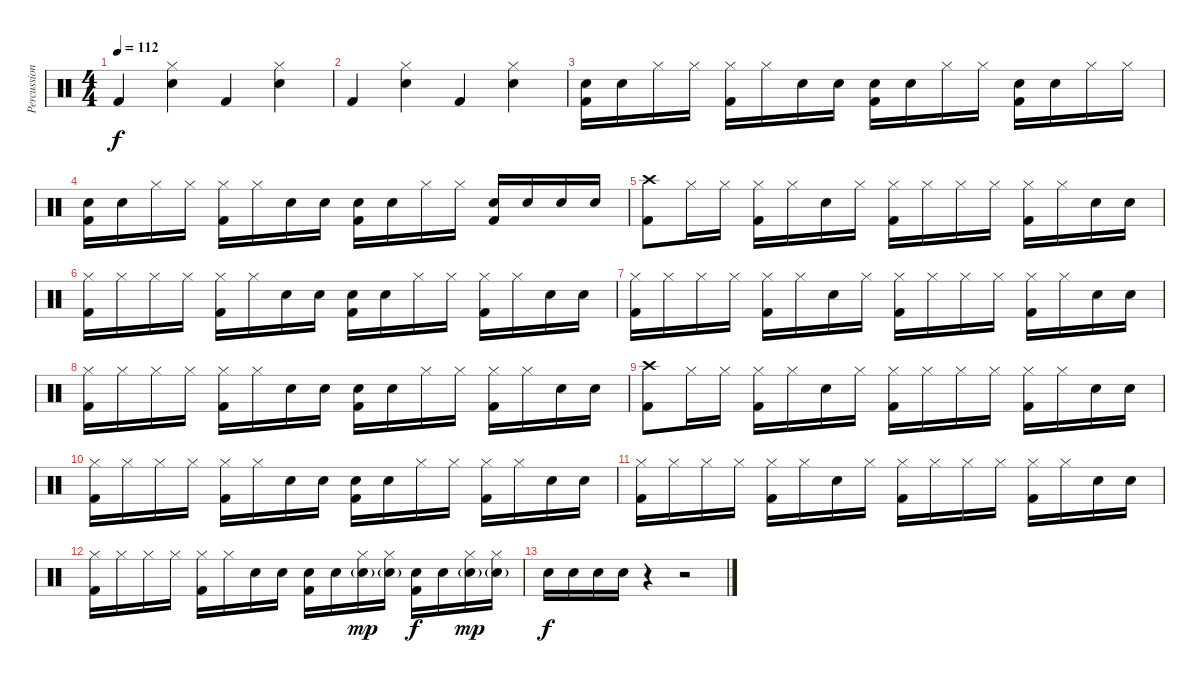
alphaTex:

\track ("Percussion" "Percussion") {instrument percussion}
\staff {score}
\articulation defaults
\ts (4 4)
\tempo 112
\clef neutral
\ks c "Kick (hit) 2".4{dy f}
("Hi-Hat (closed)" "Snare (hit) 2").4 "Kick (hit) 2".4 ("Hi-Hat (closed)" "Snare (hit) 2").4 |
"Kick (hit) 2".4 ("Hi-Hat (closed)" "Snare (hit) 2").4 "Kick (hit) 2".4 ("Hi-Hat (closed)" "Snare (hit) 2").4 |
("Snare (hit) 2" "Kick (hit) 2").16 "Snare (hit) 2".16 "Hi-Hat (closed)".16 "Hi-Hat (closed)".16 ("Hi-Hat (closed)" "Kick (hit) 2").16 "Hi-Hat (closed)".16 "Snare (hit) 2".16 "Snare (hit) 2".16 ("Snare (hit) 2" "Kick (hit) 2").16 "Snare (hit) 2".16 "Hi-Hat (closed)".16 "Hi-Hat (closed)".16 ("Snare (hit) 2" "Kick (hit) 2").16 "Snare (hit) 2".16 "Hi-Hat (closed)".16 "Hi-Hat (closed)".16 |
("Snare (hit) 2" "Kick (hit) 2").16 "Snare (hit) 2".16 "Hi-Hat (closed)".16 "Hi-Hat (closed)".16 ("Hi-Hat (closed)" "Kick (hit) 2").16 "Hi-Hat (closed)".16 "Snare (hit) 2".16 "Snare (hit) 2".16 ("Snare (hit) 2" "Kick (hit) 2").16 "Snare (hit) 2".16 "Hi-Hat (closed)".16 "Hi-Hat (closed)".16 ("Snare (hit) 2" "Kick (hit) 2").16 "Snare (hit) 2".16 "Snare (hit) 2".16 "Snare (hit) 2".16 |
("Crash high (hit)" "Kick (hit) 2").8 "Hi-Hat (closed)".16 "Hi-Hat (closed)".16 ("Hi-Hat (closed)" "Kick (hit) 2").16 "Hi-Hat (closed)".16 "Snare (hit) 2".16 "Hi-Hat (closed)".16 ("Hi-Hat (closed)" "Kick (hit) 2").16 "Hi-Hat (closed)".16 "Hi-Hat (closed)".16 "Hi-Hat (closed)".16 ("Hi-Hat (closed)" "Kick (hit) 2").16 "Hi-Hat (closed)".16 "Snare (hit) 2".16 "Snare (hit) 2".16 |
("Hi-Hat (closed)" "Kick (hit) 2").16 "Hi-Hat (closed)".16 "Hi-Hat (closed)".16 "Hi-Hat (closed)".16 ("Hi-Hat (closed)" "Kick (hit) 2").16 "Hi-Hat (closed)".16 "Snare (hit) 2".16 "Snare (hit) 2".16 ("Snare (hit) 2" "Kick (hit) 2").16 "Snare (hit) 2".16 "Hi-Hat (closed)".16 "Hi-Hat (closed)".16 ("Hi-Hat (closed)" "Kick (hit) 2").16 "Hi-Hat (closed)".16 "Snare (hit) 2".16 "Snare (hit) 2".16 |
("Hi-Hat (closed)" "Kick (hit) 2").16 "Hi-Hat (closed)".16 "Hi-Hat (closed)".16 "Hi-Hat (closed)".16 ("Hi-Hat (closed)" "Kick (hit) 2").16 "Hi-Hat (closed)".16 "Snare (hit) 2".16 "Hi-Hat (closed)".16 ("Hi-Hat (closed)" "Kick (hit) 2").16 "Hi-Hat (closed)".16 "Hi-Hat (closed)".16 "Hi-Hat (closed)".16 ("Hi-Hat (closed)" "Kick (hit) 2").16 "Hi-Hat (closed)".16 "Snare (hit) 2".16 "Snare (hit) 2".16 |
("Hi-Hat (closed)" "Kick (hit) 2").16 "Hi-Hat (closed)".16 "Hi-Hat (closed)".16 "Hi-Hat (closed)".16 ("Hi-Hat (closed)" "Kick (hit) 2").16 "Hi-Hat (closed)".16 "Snare (hit) 2".16 "Snare (hit) 2".16 ("Snare (hit) 2" "Kick (hit) 2").16 "Snare (hit) 2".16 "Hi-Hat (closed)".16 "Hi-Hat (closed)".16 ("Hi-Hat (closed)" "Kick (hit) 2").16 "Hi-Hat (closed)".16 "Snare (hit) 2".16 "Snare (hit) 2".16 |
("Crash high (hit)" "Kick (hit) 2").8 "Hi-Hat (closed)".16 "Hi-Hat (closed)".16 ("Hi-Hat (closed)" "Kick (hit) 2").16 "Hi-Hat (closed)".16 "Snare (hit) 2".16 "Hi-Hat (closed)".16 ("Hi-Hat (closed)" "Kick (hit) 2").16 "Hi-Hat (closed)".16 "Hi-Hat (closed)".16 "Hi-Hat (closed)".16 ("Hi-Hat (closed)" "Kick (hit) 2").16 "Hi-Hat (closed)".16 "Snare (hit) 2".16 "Snare (hit) 2".16 |
("Hi-Hat (closed)" "Kick (hit) 2").16 "Hi-Hat (closed)".16 "Hi-Hat (closed)".16 "Hi-Hat (closed)".16 ("Hi-Hat (closed)" "Kick (hit) 2").16 "Hi-Hat (closed)".16 "Snare (hit) 2".16 "Snare (hit) 2".16 ("Snare (hit) 2" "Kick (hit) 2").16 "Snare (hit) 2".16 "Hi-Hat (closed)".16 "Hi-Hat (closed)".16 ("Hi-Hat (closed)" "Kick (hit) 2").16 "Hi-Hat (closed)".16 "Snare (hit) 2".16 "Snare (hit) 2".16 |
("Hi-Hat (closed)" "Kick (hit) 2").16 "Hi-Hat (closed)".16 "Hi-Hat (closed)".16 "Hi-Hat (closed)".16 ("Hi-Hat (closed)" "Kick (hit) 2").16 "Hi-Hat (closed)".16 "Snare (hit) 2".16 "Hi-Hat (closed)".16 ("Hi-Hat (closed)" "Kick (hit) 2").16 "Hi-Hat (closed)".16 "Hi-Hat (closed)".16 "Hi-Hat (closed)".16 ("Hi-Hat (closed)" "Kick (hit) 2").16 "Hi-Hat (closed)".16 "Snare (hit) 2".16 "Snare (hit) 2".16 |
("Hi-Hat (closed)" "Kick (hit) 2").16 "Hi-Hat (closed)".16 "Hi-Hat (closed)".16 "Hi-Hat (closed)".16 ("Hi-Hat (closed)" "Kick (hit) 2").16 "Hi-Hat (closed)".16 "Snare (hit) 2".16 "Snare (hit) 2".16 ("Snare (hit) 2" "Kick (hit) 2").16 "Snare (hit) 2".16 ("Hi-Hat (closed)" "Snare (hit) 2"{g}).16{dy mp} ("Hi-Hat (closed)" "Snare (hit) 2"{g}).16 ("Snare (hit) 2" "Kick (hit) 2").16{dy f} "Snare (hit) 2".16 ("Hi-Hat (closed)" "Snare (hit) 2"{g}).16{dy mp} ("Hi-Hat (closed)" "Snare (hit) 2"{g}).16 |
"Snare (hit) 2".16{dy f} "Snare (hit) 2".16 "Snare (hit) 2".16 "Snare (hit) 2".16 r.4 r.2
